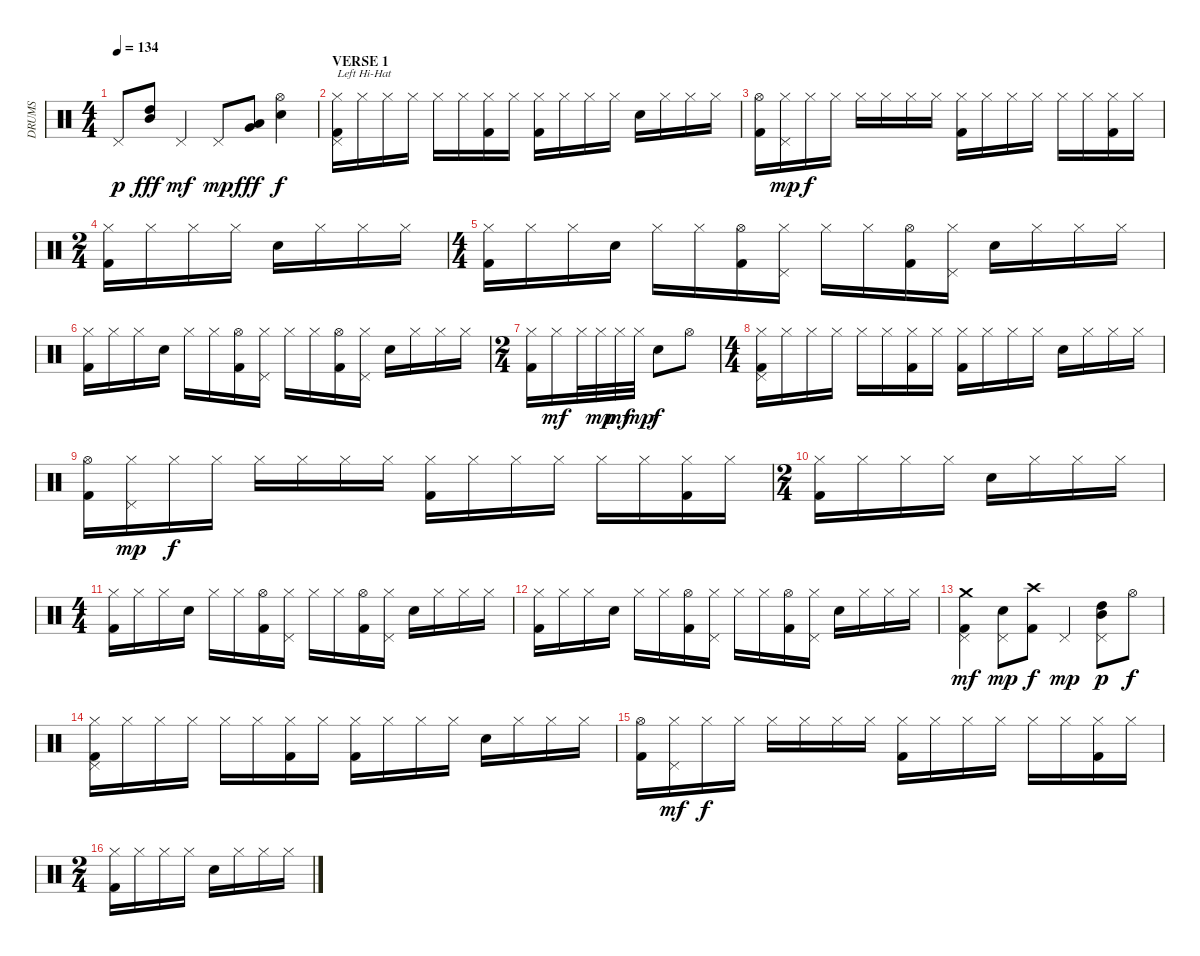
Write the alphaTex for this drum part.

\track ("DRUMS" "DRUMS") {instrument percussion}
\staff {score}
\articulation defaults
\ts (4 4)
\tempo 134
\clef neutral
\ks c "Pedal Hi-Hat (hit)".8{dy p}
("High Tom (hit)" "Mid Tom (hit)").8{dy fff} "Pedal Hi-Hat (hit)".4{dy mf} "Pedal Hi-Hat (hit)".8{dy mp} ("Low Tom (hit)" "Very Low Tom (hit)").8{dy fff} ("Hi-Hat (open)" "Electric Snare (hit)").4{dy f} |
\section ("" "VERSE 1")
("Hi-Hat (closed)" "Pedal Hi-Hat (hit)" "Kick (hit) 2").16{txt "Left Hi-Hat"} "Hi-Hat (closed)".16 "Hi-Hat (closed)".16 "Hi-Hat (closed)".16 "Hi-Hat (closed)".16 "Hi-Hat (closed)".16 ("Hi-Hat (closed)" "Kick (hit) 2").16 "Hi-Hat (closed)".16 ("Hi-Hat (closed)" "Kick (hit) 2").16 "Hi-Hat (closed)".16 "Hi-Hat (closed)".16 "Hi-Hat (closed)".16 "Electric Snare (hit)".16 "Hi-Hat (closed)".16 "Hi-Hat (closed)".16 "Hi-Hat (closed)".16 |
("Hi-Hat (open)" "Kick (hit) 2").16 ("Hi-Hat (closed)" "Pedal Hi-Hat (hit)").16{dy mp} "Hi-Hat (closed)".16{dy f} "Hi-Hat (closed)".16 "Hi-Hat (closed)".16 "Hi-Hat (closed)".16 "Hi-Hat (closed)".16 "Hi-Hat (closed)".16 ("Hi-Hat (closed)" "Kick (hit) 2").16 "Hi-Hat (closed)".16 "Hi-Hat (closed)".16 "Hi-Hat (closed)".16 "Hi-Hat (closed)".16 "Hi-Hat (closed)".16 ("Hi-Hat (closed)" "Kick (hit) 2").16 "Hi-Hat (closed)".16 |
\ts (2 4)
("Hi-Hat (closed)" "Kick (hit) 2").16 "Hi-Hat (closed)".16 "Hi-Hat (closed)".16 "Hi-Hat (closed)".16 "Electric Snare (hit)".16 "Hi-Hat (closed)".16 "Hi-Hat (closed)".16 "Hi-Hat (closed)".16 |
\ts (4 4)
("Hi-Hat (closed)" "Kick (hit) 2").16 "Hi-Hat (closed)".16 "Hi-Hat (closed)".16 "Electric Snare (hit)".16 "Hi-Hat (closed)".16 "Hi-Hat (closed)".16 ("Hi-Hat (open)" "Kick (hit) 2").16 ("Hi-Hat (closed)" "Pedal Hi-Hat (hit)").16 "Hi-Hat (closed)".16 "Hi-Hat (closed)".16 ("Hi-Hat (open)" "Kick (hit) 2").16 ("Hi-Hat (closed)" "Pedal Hi-Hat (hit)").16 "Electric Snare (hit)".16 "Hi-Hat (closed)".16 "Hi-Hat (closed)".16 "Hi-Hat (closed)".16 |
("Hi-Hat (closed)" "Kick (hit) 2").16 "Hi-Hat (closed)".16 "Hi-Hat (closed)".16 "Electric Snare (hit)".16 "Hi-Hat (closed)".16 "Hi-Hat (closed)".16 ("Hi-Hat (open)" "Kick (hit) 2").16 ("Hi-Hat (closed)" "Pedal Hi-Hat (hit)").16 "Hi-Hat (closed)".16 "Hi-Hat (closed)".16 ("Hi-Hat (open)" "Kick (hit) 2").16 ("Hi-Hat (closed)" "Pedal Hi-Hat (hit)").16 "Electric Snare (hit)".16 "Hi-Hat (closed)".16 "Hi-Hat (closed)".16 "Hi-Hat (closed)".16 |
\ts (2 4)
("Hi-Hat (closed)" "Kick (hit) 2").16 "Hi-Hat (closed)".16{dy mf} "Hi-Hat (closed)".32 "Hi-Hat (closed)".32{dy mp} "Hi-Hat (closed)".32{dy mf} "Hi-Hat (closed)".32{dy mp} "Electric Snare (hit)".8{dy f} "Hi-Hat (open)".8 |
\ts (4 4)
("Hi-Hat (closed)" "Pedal Hi-Hat (hit)" "Kick (hit) 2").16 "Hi-Hat (closed)".16 "Hi-Hat (closed)".16 "Hi-Hat (closed)".16 "Hi-Hat (closed)".16 "Hi-Hat (closed)".16 ("Hi-Hat (closed)" "Kick (hit) 2").16 "Hi-Hat (closed)".16 ("Hi-Hat (closed)" "Kick (hit) 2").16 "Hi-Hat (closed)".16 "Hi-Hat (closed)".16 "Hi-Hat (closed)".16 "Electric Snare (hit)".16 "Hi-Hat (closed)".16 "Hi-Hat (closed)".16 "Hi-Hat (closed)".16 |
("Hi-Hat (open)" "Kick (hit) 2").16 ("Hi-Hat (closed)" "Pedal Hi-Hat (hit)").16{dy mp} "Hi-Hat (closed)".16{dy f} "Hi-Hat (closed)".16 "Hi-Hat (closed)".16 "Hi-Hat (closed)".16 "Hi-Hat (closed)".16 "Hi-Hat (closed)".16 ("Hi-Hat (closed)" "Kick (hit) 2").16 "Hi-Hat (closed)".16 "Hi-Hat (closed)".16 "Hi-Hat (closed)".16 "Hi-Hat (closed)".16 "Hi-Hat (closed)".16 ("Hi-Hat (closed)" "Kick (hit) 2").16 "Hi-Hat (closed)".16 |
\ts (2 4)
("Hi-Hat (closed)" "Kick (hit) 2").16 "Hi-Hat (closed)".16 "Hi-Hat (closed)".16 "Hi-Hat (closed)".16 "Electric Snare (hit)".16 "Hi-Hat (closed)".16 "Hi-Hat (closed)".16 "Hi-Hat (closed)".16 |
\ts (4 4)
("Hi-Hat (closed)" "Kick (hit) 2").16 "Hi-Hat (closed)".16 "Hi-Hat (closed)".16 "Electric Snare (hit)".16 "Hi-Hat (closed)".16 "Hi-Hat (closed)".16 ("Hi-Hat (open)" "Kick (hit) 2").16 ("Hi-Hat (closed)" "Pedal Hi-Hat (hit)").16 "Hi-Hat (closed)".16 "Hi-Hat (closed)".16 ("Hi-Hat (open)" "Kick (hit) 2").16 ("Hi-Hat (closed)" "Pedal Hi-Hat (hit)").16 "Electric Snare (hit)".16 "Hi-Hat (closed)".16 "Hi-Hat (closed)".16 "Hi-Hat (closed)".16 |
("Hi-Hat (closed)" "Kick (hit) 2").16 "Hi-Hat (closed)".16 "Hi-Hat (closed)".16 "Electric Snare (hit)".16 "Hi-Hat (closed)".16 "Hi-Hat (closed)".16 ("Hi-Hat (open)" "Kick (hit) 2").16 ("Hi-Hat (closed)" "Pedal Hi-Hat (hit)").16 "Hi-Hat (closed)".16 "Hi-Hat (closed)".16 ("Hi-Hat (open)" "Kick (hit) 2").16 ("Hi-Hat (closed)" "Pedal Hi-Hat (hit)").16 "Electric Snare (hit)".16 "Hi-Hat (closed)".16 "Hi-Hat (closed)".16 "Hi-Hat (closed)".16 |
("Crash medium (hit)" "Pedal Hi-Hat (hit)" "Kick (hit) 2").4{dy mf} ("Electric Snare (hit)" "Pedal Hi-Hat (hit)").8{dy mp} ("Crash high (hit)" "Kick (hit) 2").8{dy f} "Pedal Hi-Hat (hit)".4{dy mp} ("High Tom (hit)" "Mid Tom (hit)" "Pedal Hi-Hat (hit)").8{dy p} "Hi-Hat (open)".8{dy f} |
("Hi-Hat (closed)" "Pedal Hi-Hat (hit)" "Kick (hit) 2").16 "Hi-Hat (closed)".16 "Hi-Hat (closed)".16 "Hi-Hat (closed)".16 "Hi-Hat (closed)".16 "Hi-Hat (closed)".16 ("Hi-Hat (closed)" "Kick (hit) 2").16 "Hi-Hat (closed)".16 ("Hi-Hat (closed)" "Kick (hit) 2").16 "Hi-Hat (closed)".16 "Hi-Hat (closed)".16 "Hi-Hat (closed)".16 "Electric Snare (hit)".16 "Hi-Hat (closed)".16 "Hi-Hat (closed)".16 "Hi-Hat (closed)".16 |
("Hi-Hat (open)" "Kick (hit) 2").16 ("Hi-Hat (closed)" "Pedal Hi-Hat (hit)").16{dy mf} "Hi-Hat (closed)".16{dy f} "Hi-Hat (closed)".16 "Hi-Hat (closed)".16 "Hi-Hat (closed)".16 "Hi-Hat (closed)".16 "Hi-Hat (closed)".16 ("Hi-Hat (closed)" "Kick (hit) 2").16 "Hi-Hat (closed)".16 "Hi-Hat (closed)".16 "Hi-Hat (closed)".16 "Hi-Hat (closed)".16 "Hi-Hat (closed)".16 ("Hi-Hat (closed)" "Kick (hit) 2").16 "Hi-Hat (closed)".16 |
\ts (2 4)
("Hi-Hat (closed)" "Kick (hit) 2").16 "Hi-Hat (closed)".16 "Hi-Hat (closed)".16 "Hi-Hat (closed)".16 "Electric Snare (hit)".16 "Hi-Hat (closed)".16 "Hi-Hat (closed)".16 "Hi-Hat (closed)".16
